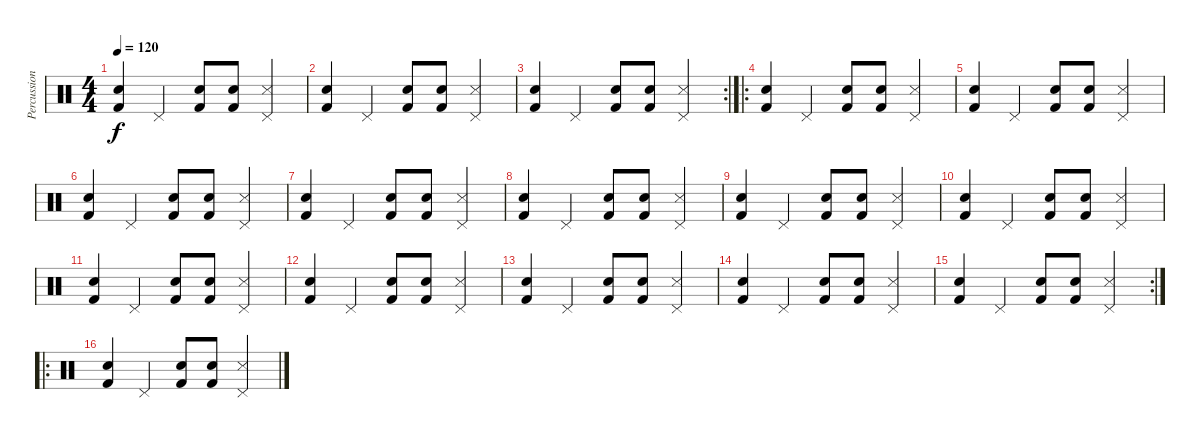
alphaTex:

\track ("Percussion" "Percussion") {instrument percussion}
\staff {score}
\articulation defaults
\ts (4 4)
\tempo 120
\clef neutral
\ks c
("Kick (hit) 2" "Snare (hit) 2").4{dy f} "Pedal Hi-Hat (hit)".4 ("Kick (hit) 2" "Snare (hit) 2").8 ("Kick (hit) 2" "Snare (hit) 2").8 ("Pedal Hi-Hat (hit)" "Snare (side stick) 3").4 |
("Kick (hit) 2" "Snare (hit) 2").4 "Pedal Hi-Hat (hit)".4 ("Kick (hit) 2" "Snare (hit) 2").8 ("Kick (hit) 2" "Snare (hit) 2").8 ("Pedal Hi-Hat (hit)" "Snare (side stick) 3").4 |
\rc 2
("Kick (hit) 2" "Snare (hit) 2").4 "Pedal Hi-Hat (hit)".4 ("Kick (hit) 2" "Snare (hit) 2").8 ("Kick (hit) 2" "Snare (hit) 2").8 ("Pedal Hi-Hat (hit)" "Snare (side stick) 3").4 |
\ro
("Kick (hit) 2" "Snare (hit) 2").4 "Pedal Hi-Hat (hit)".4 ("Kick (hit) 2" "Snare (hit) 2").8 ("Kick (hit) 2" "Snare (hit) 2").8 ("Pedal Hi-Hat (hit)" "Snare (side stick) 3").4 |
("Kick (hit) 2" "Snare (hit) 2").4 "Pedal Hi-Hat (hit)".4 ("Kick (hit) 2" "Snare (hit) 2").8 ("Kick (hit) 2" "Snare (hit) 2").8 ("Pedal Hi-Hat (hit)" "Snare (side stick) 3").4 |
("Kick (hit) 2" "Snare (hit) 2").4 "Pedal Hi-Hat (hit)".4 ("Kick (hit) 2" "Snare (hit) 2").8 ("Kick (hit) 2" "Snare (hit) 2").8 ("Pedal Hi-Hat (hit)" "Snare (side stick) 3").4 |
("Kick (hit) 2" "Snare (hit) 2").4 "Pedal Hi-Hat (hit)".4 ("Kick (hit) 2" "Snare (hit) 2").8 ("Kick (hit) 2" "Snare (hit) 2").8 ("Pedal Hi-Hat (hit)" "Snare (side stick) 3").4 |
("Kick (hit) 2" "Snare (hit) 2").4 "Pedal Hi-Hat (hit)".4 ("Kick (hit) 2" "Snare (hit) 2").8 ("Kick (hit) 2" "Snare (hit) 2").8 ("Pedal Hi-Hat (hit)" "Snare (side stick) 3").4 |
("Kick (hit) 2" "Snare (hit) 2").4 "Pedal Hi-Hat (hit)".4 ("Kick (hit) 2" "Snare (hit) 2").8 ("Kick (hit) 2" "Snare (hit) 2").8 ("Pedal Hi-Hat (hit)" "Snare (side stick) 3").4 |
("Kick (hit) 2" "Snare (hit) 2").4 "Pedal Hi-Hat (hit)".4 ("Kick (hit) 2" "Snare (hit) 2").8 ("Kick (hit) 2" "Snare (hit) 2").8 ("Pedal Hi-Hat (hit)" "Snare (side stick) 3").4 |
("Kick (hit) 2" "Snare (hit) 2").4 "Pedal Hi-Hat (hit)".4 ("Kick (hit) 2" "Snare (hit) 2").8 ("Kick (hit) 2" "Snare (hit) 2").8 ("Pedal Hi-Hat (hit)" "Snare (side stick) 3").4 |
("Kick (hit) 2" "Snare (hit) 2").4 "Pedal Hi-Hat (hit)".4 ("Kick (hit) 2" "Snare (hit) 2").8 ("Kick (hit) 2" "Snare (hit) 2").8 ("Pedal Hi-Hat (hit)" "Snare (side stick) 3").4 |
("Kick (hit) 2" "Snare (hit) 2").4 "Pedal Hi-Hat (hit)".4 ("Kick (hit) 2" "Snare (hit) 2").8 ("Kick (hit) 2" "Snare (hit) 2").8 ("Pedal Hi-Hat (hit)" "Snare (side stick) 3").4 |
("Kick (hit) 2" "Snare (hit) 2").4 "Pedal Hi-Hat (hit)".4 ("Kick (hit) 2" "Snare (hit) 2").8 ("Kick (hit) 2" "Snare (hit) 2").8 ("Pedal Hi-Hat (hit)" "Snare (side stick) 3").4 |
\rc 2
("Kick (hit) 2" "Snare (hit) 2").4 "Pedal Hi-Hat (hit)".4 ("Kick (hit) 2" "Snare (hit) 2").8 ("Kick (hit) 2" "Snare (hit) 2").8 ("Pedal Hi-Hat (hit)" "Snare (side stick) 3").4 |
\ro
("Kick (hit) 2" "Snare (hit) 2").4 "Pedal Hi-Hat (hit)".4 ("Kick (hit) 2" "Snare (hit) 2").8 ("Kick (hit) 2" "Snare (hit) 2").8 ("Pedal Hi-Hat (hit)" "Snare (side stick) 3").4
